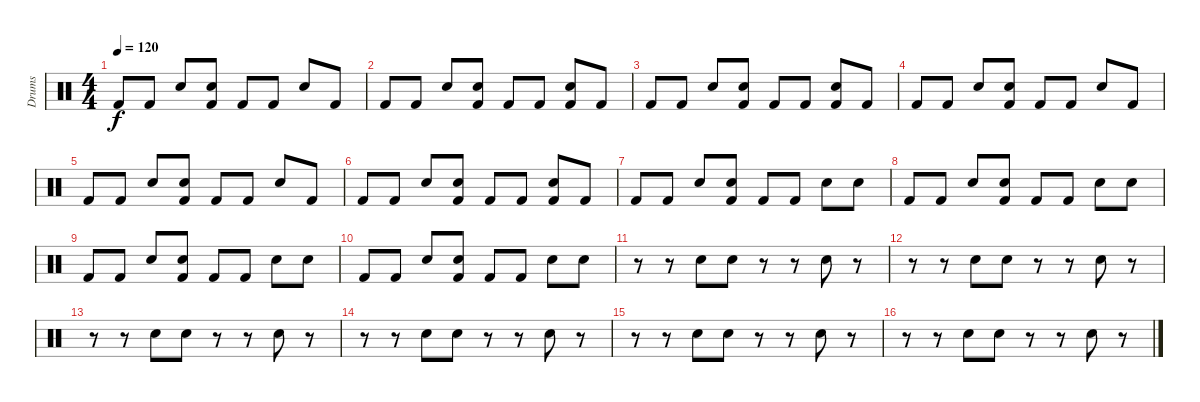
\track ("Drums" "Drums") {instrument percussion}
\staff {score}
\articulation defaults
\ts (4 4)
\tempo 120
\clef neutral
\ks c "Kick (hit) 2".8{dy f} "Kick (hit) 2".8 "Snare (hit) 2".8
("Snare (hit) 2" "Kick (hit) 2").8 "Kick (hit) 2".8 "Kick (hit) 2".8 "Snare (hit) 2".8 "Kick (hit) 2".8 |
"Kick (hit) 2".8 "Kick (hit) 2".8 "Snare (hit) 2".8 ("Snare (hit) 2" "Kick (hit) 2").8 "Kick (hit) 2".8 "Kick (hit) 2".8 ("Snare (hit) 2" "Kick (hit) 2").8 "Kick (hit) 2".8 |
"Kick (hit) 2".8 "Kick (hit) 2".8 "Snare (hit) 2".8 ("Snare (hit) 2" "Kick (hit) 2").8 "Kick (hit) 2".8 "Kick (hit) 2".8 ("Snare (hit) 2" "Kick (hit) 2").8 "Kick (hit) 2".8 |
"Kick (hit) 2".8 "Kick (hit) 2".8 "Snare (hit) 2".8 ("Snare (hit) 2" "Kick (hit) 2").8 "Kick (hit) 2".8 "Kick (hit) 2".8 "Snare (hit) 2".8 "Kick (hit) 2".8 |
"Kick (hit) 2".8 "Kick (hit) 2".8 "Snare (hit) 2".8 ("Snare (hit) 2" "Kick (hit) 2").8 "Kick (hit) 2".8 "Kick (hit) 2".8 "Snare (hit) 2".8 "Kick (hit) 2".8 |
"Kick (hit) 2".8 "Kick (hit) 2".8 "Snare (hit) 2".8 ("Snare (hit) 2" "Kick (hit) 2").8 "Kick (hit) 2".8 "Kick (hit) 2".8 ("Snare (hit) 2" "Kick (hit) 2").8 "Kick (hit) 2".8 |
"Kick (hit) 2".8 "Kick (hit) 2".8 "Snare (hit) 2".8 ("Snare (hit) 2" "Kick (hit) 2").8 "Kick (hit) 2".8 "Kick (hit) 2".8 "Snare (hit) 2".8 "Snare (hit) 2".8 |
"Kick (hit) 2".8 "Kick (hit) 2".8 "Snare (hit) 2".8 ("Snare (hit) 2" "Kick (hit) 2").8 "Kick (hit) 2".8 "Kick (hit) 2".8 "Snare (hit) 2".8 "Snare (hit) 2".8 |
"Kick (hit) 2".8 "Kick (hit) 2".8 "Snare (hit) 2".8 ("Snare (hit) 2" "Kick (hit) 2").8 "Kick (hit) 2".8 "Kick (hit) 2".8 "Snare (hit) 2".8 "Snare (hit) 2".8 |
"Kick (hit) 2".8 "Kick (hit) 2".8 "Snare (hit) 2".8 ("Snare (hit) 2" "Kick (hit) 2").8 "Kick (hit) 2".8 "Kick (hit) 2".8 "Snare (hit) 2".8 "Snare (hit) 2".8 |
r.8 r.8 "Snare (hit) 2".8 "Snare (hit) 2".8 r.8 r.8 "Snare (hit) 2".8 r.8 |
r.8 r.8 "Snare (hit) 2".8 "Snare (hit) 2".8 r.8 r.8 "Snare (hit) 2".8 r.8 |
r.8 r.8 "Snare (hit) 2".8 "Snare (hit) 2".8 r.8 r.8 "Snare (hit) 2".8 r.8 |
r.8 r.8 "Snare (hit) 2".8 "Snare (hit) 2".8 r.8 r.8 "Snare (hit) 2".8 r.8 |
r.8 r.8 "Snare (hit) 2".8 "Snare (hit) 2".8 r.8 r.8 "Snare (hit) 2".8 r.8 |
r.8 r.8 "Snare (hit) 2".8 "Snare (hit) 2".8 r.8 r.8 "Snare (hit) 2".8 r.8
